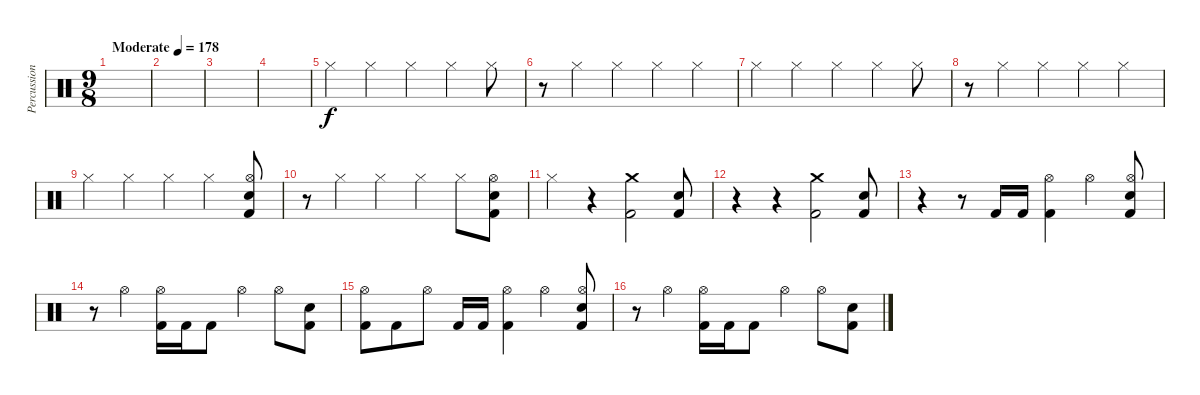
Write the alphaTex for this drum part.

\track ("Percussion" "Percussion") {instrument percussion}
\staff {score}
\articulation defaults
\ts (9 8)
\tempo (178 "Moderate")
\clef neutral
\ks c
|
|
|
|
"Hi-Hat (closed)".4 "Hi-Hat (closed)".4 "Hi-Hat (closed)".4 "Hi-Hat (closed)".4 "Hi-Hat (closed)".8 |
r.8 "Hi-Hat (closed)".4 "Hi-Hat (closed)".4 "Hi-Hat (closed)".4 "Hi-Hat (closed)".4 |
"Hi-Hat (closed)".4 "Hi-Hat (closed)".4 "Hi-Hat (closed)".4 "Hi-Hat (closed)".4 "Hi-Hat (closed)".8 |
r.8 "Hi-Hat (closed)".4 "Hi-Hat (closed)".4 "Hi-Hat (closed)".4 "Hi-Hat (closed)".4 |
"Hi-Hat (closed)".4 "Hi-Hat (closed)".4 "Hi-Hat (closed)".4 "Hi-Hat (closed)".4 ("Electric Snare (hit)" "Hi-Hat (open)" "Kick (hit) 2").8 |
r.8 "Hi-Hat (closed)".4 "Hi-Hat (closed)".4 "Hi-Hat (closed)".4 "Hi-Hat (closed)".8 ("Electric Snare (hit)" "Hi-Hat (open)" "Kick (hit) 2").8 |
"Hi-Hat (closed)".4 r.4 ("Crash medium (hit)" "Kick (hit) 2").2 ("Electric Snare (hit)" "Kick (hit) 2").8 |
r.4 r.4 ("Crash medium (hit)" "Kick (hit) 2").2 ("Electric Snare (hit)" "Kick (hit) 2").8 |
r.4 r.8 "Kick (hit) 2".16 "Kick (hit) 2".16 ("Hi-Hat (open)" "Kick (hit) 2").4 "Hi-Hat (open)".4 ("Hi-Hat (open)" "Electric Snare (hit)" "Kick (hit) 2").8 |
r.8 "Hi-Hat (open)".4 ("Hi-Hat (open)" "Kick (hit) 2").16 "Kick (hit) 2".16 "Kick (hit) 2".8 "Hi-Hat (open)".4 "Hi-Hat (open)".8 ("Electric Snare (hit)" "Kick (hit) 2").8 |
("Hi-Hat (open)" "Kick (hit) 2").8 "Kick (hit) 2".8 "Hi-Hat (open)".8 "Kick (hit) 2".16 "Kick (hit) 2".16 ("Hi-Hat (open)" "Kick (hit) 2").4 "Hi-Hat (open)".4 ("Hi-Hat (open)" "Electric Snare (hit)" "Kick (hit) 2").8 |
r.8 "Hi-Hat (open)".4 ("Hi-Hat (open)" "Kick (hit) 2").16 "Kick (hit) 2".16 "Kick (hit) 2".8 "Hi-Hat (open)".4 "Hi-Hat (open)".8 ("Electric Snare (hit)" "Kick (hit) 2").8
